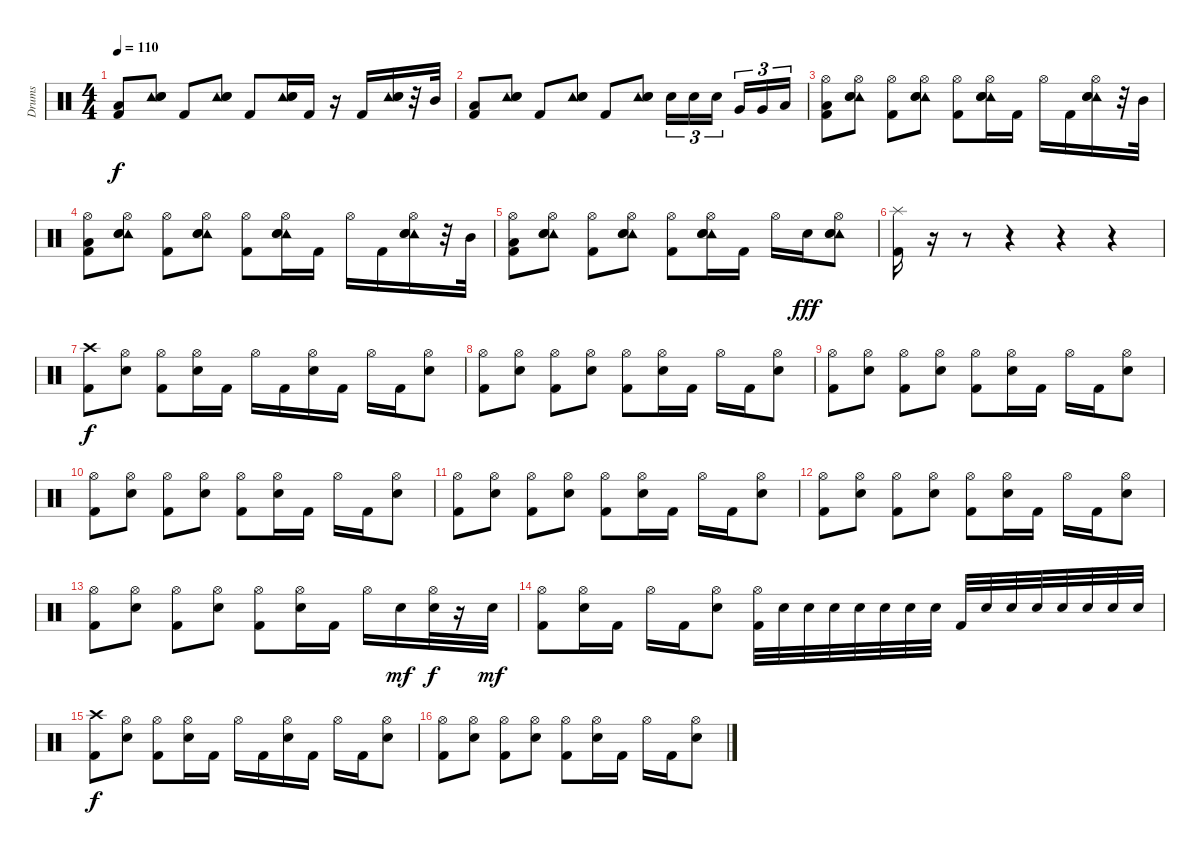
\track ("Drums" "Drums") {instrument percussion}
\staff {score}
\articulation defaults
\ts (4 4)
\tempo 110
\clef neutral
\ks c
("Kick (hit) 2" "Low Tom (hit)").8{dy f} ("Tambourine (hit)" "Electric Snare (hit)" "Hand Clap (hit)").8 "Kick (hit) 2".8 ("Tambourine (hit)" "Electric Snare (hit)" "Hand Clap (hit)").8 "Kick (hit) 2".8 ("Tambourine (hit)" "Electric Snare (hit)" "Hand Clap (hit)").16 "Kick (hit) 2".16 r.16 "Kick (hit) 2".16 ("Tambourine (hit)" "Electric Snare (hit)" "Hand Clap (hit)").16 r.32 "Mid Tom (hit)".32 |
("Kick (hit) 2" "Low Tom (hit)").8 ("Tambourine (hit)" "Electric Snare (hit)" "Hand Clap (hit)").8 "Kick (hit) 2".8 ("Tambourine (hit)" "Electric Snare (hit)" "Hand Clap (hit)").8 "Kick (hit) 2".8 ("Tambourine (hit)" "Electric Snare (hit)" "Hand Clap (hit)").8 "Electric Snare (hit)".16{tu (3 2)} "Electric Snare (hit)".16{tu (3 2)} "Electric Snare (hit)".16{tu (3 2) beam splitsecondary} "Very Low Tom (hit)".16{tu (3 2)} "Very Low Tom (hit)".16{tu (3 2)} "Low Floor Tom (hit)".16{tu (3 2)} |
("Hi-Hat (open)" "Kick (hit) 2" "Low Tom (hit)").8 ("Hi-Hat (open)" "Tambourine (hit)" "Electric Snare (hit)" "Hand Clap (hit)").8 ("Hi-Hat (open)" "Kick (hit) 2").8 ("Hi-Hat (open)" "Tambourine (hit)" "Electric Snare (hit)" "Hand Clap (hit)").8 ("Hi-Hat (open)" "Kick (hit) 2").8 ("Hi-Hat (open)" "Tambourine (hit)" "Electric Snare (hit)" "Hand Clap (hit)").16 "Kick (hit) 2".16 "Hi-Hat (open)".16 "Kick (hit) 2".16 ("Hi-Hat (open)" "Tambourine (hit)" "Electric Snare (hit)" "Hand Clap (hit)").16 r.32 "Mid Tom (hit)".32 |
("Hi-Hat (open)" "Kick (hit) 2" "Low Tom (hit)").8 ("Hi-Hat (open)" "Tambourine (hit)" "Electric Snare (hit)" "Hand Clap (hit)").8 ("Hi-Hat (open)" "Kick (hit) 2").8 ("Hi-Hat (open)" "Tambourine (hit)" "Electric Snare (hit)" "Hand Clap (hit)").8 ("Hi-Hat (open)" "Kick (hit) 2").8 ("Hi-Hat (open)" "Tambourine (hit)" "Electric Snare (hit)" "Hand Clap (hit)").16 "Kick (hit) 2".16 "Hi-Hat (open)".16 "Kick (hit) 2".16 ("Hi-Hat (open)" "Tambourine (hit)" "Electric Snare (hit)" "Hand Clap (hit)").16 r.32 "Mid Tom (hit)".32 |
("Hi-Hat (open)" "Kick (hit) 2" "Low Tom (hit)").8 ("Hi-Hat (open)" "Tambourine (hit)" "Electric Snare (hit)" "Hand Clap (hit)").8 ("Hi-Hat (open)" "Kick (hit) 2").8 ("Hi-Hat (open)" "Tambourine (hit)" "Electric Snare (hit)" "Hand Clap (hit)").8 ("Hi-Hat (open)" "Kick (hit) 2").8 ("Hi-Hat (open)" "Tambourine (hit)" "Electric Snare (hit)" "Hand Clap (hit)").16 "Kick (hit) 2".16 "Hi-Hat (open)".16 "Electric Snare (hit)".16{dy fff} ("Hi-Hat (open)" "Tambourine (hit)" "Electric Snare (hit)" "Hand Clap (hit)").8 |
("Splash (hit)" "Kick (hit) 2").16 r.16 r.8 r.4 r.4 r.4 |
("Crash high (hit)" "Kick (hit) 2").8{dy f} ("Hi-Hat (open)" "Electric Snare (hit)").8 ("Hi-Hat (open)" "Kick (hit) 2").8 ("Hi-Hat (open)" "Electric Snare (hit)").16 "Kick (hit) 2".16 "Hi-Hat (open)".16 "Kick (hit) 2".16 ("Hi-Hat (open)" "Electric Snare (hit)").16 "Kick (hit) 2".16 "Hi-Hat (open)".16 "Kick (hit) 2".16 ("Hi-Hat (open)" "Electric Snare (hit)").8 |
("Hi-Hat (open)" "Kick (hit) 2").8 ("Hi-Hat (open)" "Electric Snare (hit)").8 ("Hi-Hat (open)" "Kick (hit) 2").8 ("Hi-Hat (open)" "Electric Snare (hit)").8 ("Hi-Hat (open)" "Kick (hit) 2").8 ("Hi-Hat (open)" "Electric Snare (hit)").16 "Kick (hit) 2".16 "Hi-Hat (open)".16 "Kick (hit) 2".16 ("Hi-Hat (open)" "Electric Snare (hit)").8 |
("Hi-Hat (open)" "Kick (hit) 2").8 ("Hi-Hat (open)" "Electric Snare (hit)").8 ("Hi-Hat (open)" "Kick (hit) 2").8 ("Hi-Hat (open)" "Electric Snare (hit)").8 ("Hi-Hat (open)" "Kick (hit) 2").8 ("Hi-Hat (open)" "Electric Snare (hit)").16 "Kick (hit) 2".16 "Hi-Hat (open)".16 "Kick (hit) 2".16 ("Hi-Hat (open)" "Electric Snare (hit)").8 |
("Hi-Hat (open)" "Kick (hit) 2").8 ("Hi-Hat (open)" "Electric Snare (hit)").8 ("Hi-Hat (open)" "Kick (hit) 2").8 ("Hi-Hat (open)" "Electric Snare (hit)").8 ("Hi-Hat (open)" "Kick (hit) 2").8 ("Hi-Hat (open)" "Electric Snare (hit)").16 "Kick (hit) 2".16 "Hi-Hat (open)".16 "Kick (hit) 2".16 ("Hi-Hat (open)" "Electric Snare (hit)").8 |
("Hi-Hat (open)" "Kick (hit) 2").8 ("Hi-Hat (open)" "Electric Snare (hit)").8 ("Hi-Hat (open)" "Kick (hit) 2").8 ("Hi-Hat (open)" "Electric Snare (hit)").8 ("Hi-Hat (open)" "Kick (hit) 2").8 ("Hi-Hat (open)" "Electric Snare (hit)").16 "Kick (hit) 2".16 "Hi-Hat (open)".16 "Kick (hit) 2".16 ("Hi-Hat (open)" "Electric Snare (hit)").8 |
("Hi-Hat (open)" "Kick (hit) 2").8 ("Hi-Hat (open)" "Electric Snare (hit)").8 ("Hi-Hat (open)" "Kick (hit) 2").8 ("Hi-Hat (open)" "Electric Snare (hit)").8 ("Hi-Hat (open)" "Kick (hit) 2").8 ("Hi-Hat (open)" "Electric Snare (hit)").16 "Kick (hit) 2".16 "Hi-Hat (open)".16 "Kick (hit) 2".16 ("Hi-Hat (open)" "Electric Snare (hit)").8 |
("Hi-Hat (open)" "Kick (hit) 2").8 ("Hi-Hat (open)" "Electric Snare (hit)").8 ("Hi-Hat (open)" "Kick (hit) 2").8 ("Hi-Hat (open)" "Electric Snare (hit)").8 ("Hi-Hat (open)" "Kick (hit) 2").8 ("Hi-Hat (open)" "Electric Snare (hit)").16 "Kick (hit) 2".16 "Hi-Hat (open)".16 "Electric Snare (hit)".16{dy mf} ("Hi-Hat (open)" "Electric Snare (hit)").32{dy f} r.16 "Electric Snare (hit)".32{dy mf} |
("Hi-Hat (open)" "Kick (hit) 2").8 ("Hi-Hat (open)" "Electric Snare (hit)").16 "Kick (hit) 2".16 "Hi-Hat (open)".16 "Kick (hit) 2".16 ("Hi-Hat (open)" "Electric Snare (hit)").8 ("Hi-Hat (open)" "Kick (hit) 2").32 "Electric Snare (hit)".32 "Electric Snare (hit)".32 "Electric Snare (hit)".32 "Electric Snare (hit)".32 "Electric Snare (hit)".32 "Electric Snare (hit)".32 "Electric Snare (hit)".32 "Kick (hit) 2".32 "Electric Snare (hit)".32 "Electric Snare (hit)".32 "Electric Snare (hit)".32 "Electric Snare (hit)".32 "Electric Snare (hit)".32 "Electric Snare (hit)".32 "Electric Snare (hit)".32 |
("Crash high (hit)" "Kick (hit) 2").8{dy f} ("Hi-Hat (open)" "Electric Snare (hit)").8 ("Hi-Hat (open)" "Kick (hit) 2").8 ("Hi-Hat (open)" "Electric Snare (hit)").16 "Kick (hit) 2".16 "Hi-Hat (open)".16 "Kick (hit) 2".16 ("Hi-Hat (open)" "Electric Snare (hit)").16 "Kick (hit) 2".16 "Hi-Hat (open)".16 "Kick (hit) 2".16 ("Hi-Hat (open)" "Electric Snare (hit)").8 |
("Hi-Hat (open)" "Kick (hit) 2").8 ("Hi-Hat (open)" "Electric Snare (hit)").8 ("Hi-Hat (open)" "Kick (hit) 2").8 ("Hi-Hat (open)" "Electric Snare (hit)").8 ("Hi-Hat (open)" "Kick (hit) 2").8 ("Hi-Hat (open)" "Electric Snare (hit)").16 "Kick (hit) 2".16 "Hi-Hat (open)".16 "Kick (hit) 2".16 ("Hi-Hat (open)" "Electric Snare (hit)").8
